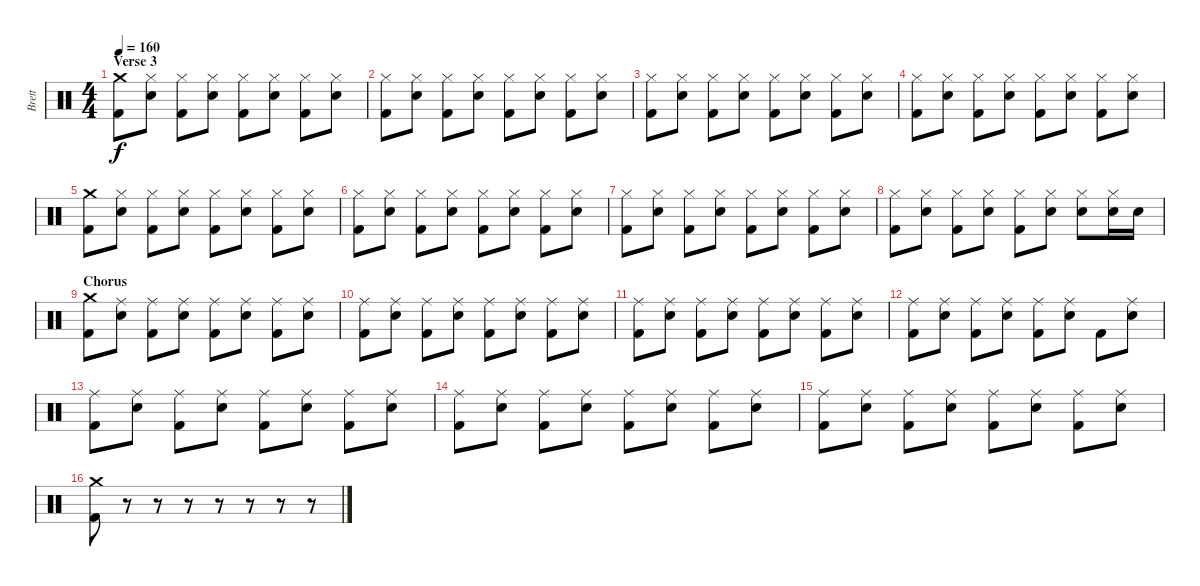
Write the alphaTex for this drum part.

\track ("Brett" "Brett") {instrument percussion}
\staff {score}
\articulation defaults
\ts (4 4)
\section ("" "Verse 3")
\tempo 160
\clef neutral
\ks c
("Crash medium (hit)" "Kick (hit) 2").8{dy f} ("Hi-Hat (closed)" "Snare (hit) 2").8 ("Hi-Hat (closed)" "Kick (hit) 2").8 ("Hi-Hat (closed)" "Snare (hit) 2").8 ("Hi-Hat (closed)" "Kick (hit) 2").8 ("Hi-Hat (closed)" "Snare (hit) 2").8 ("Hi-Hat (closed)" "Kick (hit) 2").8 ("Hi-Hat (closed)" "Snare (hit) 2").8 |
("Hi-Hat (closed)" "Kick (hit) 2").8 ("Hi-Hat (closed)" "Snare (hit) 2").8 ("Hi-Hat (closed)" "Kick (hit) 2").8 ("Hi-Hat (closed)" "Snare (hit) 2").8 ("Hi-Hat (closed)" "Kick (hit) 2").8 ("Hi-Hat (closed)" "Snare (hit) 2").8 ("Hi-Hat (closed)" "Kick (hit) 2").8 ("Hi-Hat (closed)" "Snare (hit) 2").8 |
("Hi-Hat (closed)" "Kick (hit) 2").8 ("Hi-Hat (closed)" "Snare (hit) 2").8 ("Hi-Hat (closed)" "Kick (hit) 2").8 ("Hi-Hat (closed)" "Snare (hit) 2").8 ("Hi-Hat (closed)" "Kick (hit) 2").8 ("Hi-Hat (closed)" "Snare (hit) 2").8 ("Hi-Hat (closed)" "Kick (hit) 2").8 ("Hi-Hat (closed)" "Snare (hit) 2").8 |
("Hi-Hat (closed)" "Kick (hit) 2").8 ("Hi-Hat (closed)" "Snare (hit) 2").8 ("Hi-Hat (closed)" "Kick (hit) 2").8 ("Hi-Hat (closed)" "Snare (hit) 2").8 ("Hi-Hat (closed)" "Kick (hit) 2").8 ("Hi-Hat (closed)" "Snare (hit) 2").8 ("Hi-Hat (closed)" "Kick (hit) 2").8 ("Hi-Hat (closed)" "Snare (hit) 2").8 |
("Crash medium (hit)" "Kick (hit) 2").8 ("Hi-Hat (closed)" "Snare (hit) 2").8 ("Hi-Hat (closed)" "Kick (hit) 2").8 ("Hi-Hat (closed)" "Snare (hit) 2").8 ("Hi-Hat (closed)" "Kick (hit) 2").8 ("Hi-Hat (closed)" "Snare (hit) 2").8 ("Hi-Hat (closed)" "Kick (hit) 2").8 ("Hi-Hat (closed)" "Snare (hit) 2").8 |
("Hi-Hat (closed)" "Kick (hit) 2").8 ("Hi-Hat (closed)" "Snare (hit) 2").8 ("Hi-Hat (closed)" "Kick (hit) 2").8 ("Hi-Hat (closed)" "Snare (hit) 2").8 ("Hi-Hat (closed)" "Kick (hit) 2").8 ("Hi-Hat (closed)" "Snare (hit) 2").8 ("Hi-Hat (closed)" "Kick (hit) 2").8 ("Hi-Hat (closed)" "Snare (hit) 2").8 |
("Hi-Hat (closed)" "Kick (hit) 2").8 ("Hi-Hat (closed)" "Snare (hit) 2").8 ("Hi-Hat (closed)" "Kick (hit) 2").8 ("Hi-Hat (closed)" "Snare (hit) 2").8 ("Hi-Hat (closed)" "Kick (hit) 2").8 ("Hi-Hat (closed)" "Snare (hit) 2").8 ("Hi-Hat (closed)" "Kick (hit) 2").8 ("Hi-Hat (closed)" "Snare (hit) 2").8 |
("Hi-Hat (closed)" "Kick (hit) 2").8 ("Hi-Hat (closed)" "Snare (hit) 2").8 ("Hi-Hat (closed)" "Kick (hit) 2").8 ("Hi-Hat (closed)" "Snare (hit) 2").8 ("Hi-Hat (closed)" "Kick (hit) 2").8 ("Hi-Hat (closed)" "Snare (hit) 2").8 ("Hi-Hat (closed)" "Snare (hit) 2").8 ("Hi-Hat (closed)" "Snare (hit) 2").16 "Snare (hit) 2".16 |
\section ("" "Chorus")
("Crash medium (hit)" "Kick (hit) 2").8 ("Ride (middle)" "Snare (hit) 2").8 ("Ride (middle)" "Kick (hit) 2").8 ("Ride (middle)" "Snare (hit) 2").8 ("Ride (middle)" "Kick (hit) 2").8 ("Ride (middle)" "Snare (hit) 2").8 ("Ride (middle)" "Kick (hit) 2").8 ("Ride (middle)" "Snare (hit) 2").8 |
("Ride (middle)" "Kick (hit) 2").8 ("Ride (middle)" "Snare (hit) 2").8 ("Ride (middle)" "Kick (hit) 2").8 ("Ride (middle)" "Snare (hit) 2").8 ("Ride (middle)" "Kick (hit) 2").8 ("Ride (middle)" "Snare (hit) 2").8 ("Ride (middle)" "Kick (hit) 2").8 ("Ride (middle)" "Snare (hit) 2").8 |
("Ride (middle)" "Kick (hit) 2").8 ("Ride (middle)" "Snare (hit) 2").8 ("Ride (middle)" "Kick (hit) 2").8 ("Ride (middle)" "Snare (hit) 2").8 ("Ride (middle)" "Kick (hit) 2").8 ("Ride (middle)" "Snare (hit) 2").8 ("Ride (middle)" "Kick (hit) 2").8 ("Ride (middle)" "Snare (hit) 2").8 |
("Ride (middle)" "Kick (hit) 2").8 ("Ride (middle)" "Snare (hit) 2").8 ("Ride (middle)" "Kick (hit) 2").8 ("Ride (middle)" "Snare (hit) 2").8 ("Ride (middle)" "Kick (hit) 2").8 ("Ride (middle)" "Snare (hit) 2").8 "Kick (hit) 2".8 ("Ride (middle)" "Snare (hit) 2").8 |
("Ride (middle)" "Kick (hit) 2").8 ("Ride (middle)" "Snare (hit) 2").8 ("Ride (middle)" "Kick (hit) 2").8 ("Ride (middle)" "Snare (hit) 2").8 ("Ride (middle)" "Kick (hit) 2").8 ("Ride (middle)" "Snare (hit) 2").8 ("Ride (middle)" "Kick (hit) 2").8 ("Ride (middle)" "Snare (hit) 2").8 |
("Ride (middle)" "Kick (hit) 2").8 ("Ride (middle)" "Snare (hit) 2").8 ("Ride (middle)" "Kick (hit) 2").8 ("Ride (middle)" "Snare (hit) 2").8 ("Ride (middle)" "Kick (hit) 2").8 ("Ride (middle)" "Snare (hit) 2").8 ("Ride (middle)" "Kick (hit) 2").8 ("Ride (middle)" "Snare (hit) 2").8 |
("Ride (middle)" "Kick (hit) 2").8 ("Ride (middle)" "Snare (hit) 2").8 ("Ride (middle)" "Kick (hit) 2").8 ("Ride (middle)" "Snare (hit) 2").8 ("Ride (middle)" "Kick (hit) 2").8 ("Ride (middle)" "Snare (hit) 2").8 ("Ride (middle)" "Kick (hit) 2").8 ("Ride (middle)" "Snare (hit) 2").8 |
("Crash medium (hit)" "Kick (hit) 2").8 r.8 r.8 r.8 r.8 r.8 r.8 r.8
